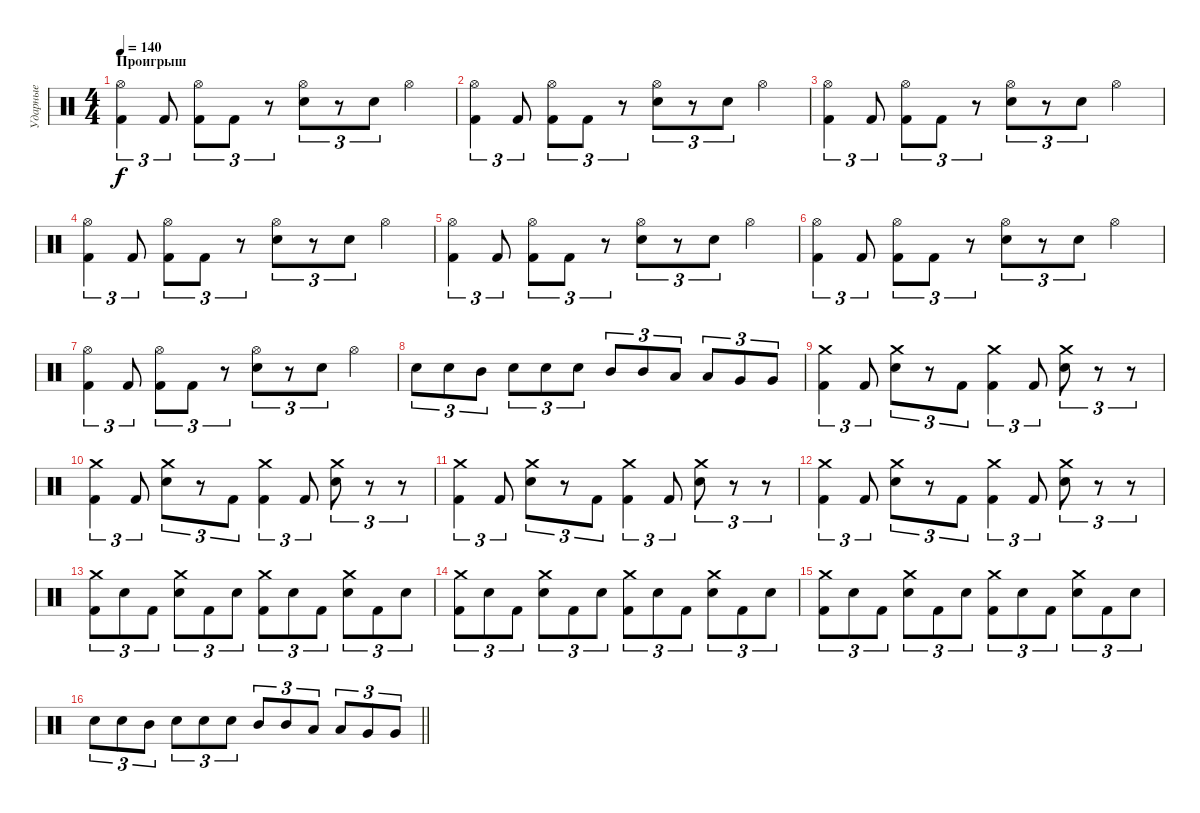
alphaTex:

\track ("Ударные" "Ударные") {instrument percussion}
\staff {score}
\articulation defaults
\ts (4 4)
\section ("" "Проигрыш")
\tempo 140
\clef neutral
\ks c
("Hi-Hat (open)" "Kick (hit) 2").4{tu (3 2) dy f} "Kick (hit) 2".8{tu (3 2)} ("Hi-Hat (open)" "Kick (hit) 2").8{tu (3 2)} "Kick (hit) 2".8{tu (3 2)} r.8{tu (3 2)} ("Hi-Hat (open)" "Electric Snare (hit)").8{tu (3 2)} r.8{tu (3 2)} "Electric Snare (hit)".8{tu (3 2)} "Hi-Hat (open)".4 |
("Hi-Hat (open)" "Kick (hit) 2").4{tu (3 2)} "Kick (hit) 2".8{tu (3 2)} ("Hi-Hat (open)" "Kick (hit) 2").8{tu (3 2)} "Kick (hit) 2".8{tu (3 2)} r.8{tu (3 2)} ("Hi-Hat (open)" "Electric Snare (hit)").8{tu (3 2)} r.8{tu (3 2)} "Electric Snare (hit)".8{tu (3 2)} "Hi-Hat (open)".4 |
("Hi-Hat (open)" "Kick (hit) 2").4{tu (3 2)} "Kick (hit) 2".8{tu (3 2)} ("Hi-Hat (open)" "Kick (hit) 2").8{tu (3 2)} "Kick (hit) 2".8{tu (3 2)} r.8{tu (3 2)} ("Hi-Hat (open)" "Electric Snare (hit)").8{tu (3 2)} r.8{tu (3 2)} "Electric Snare (hit)".8{tu (3 2)} "Hi-Hat (open)".4 |
("Hi-Hat (open)" "Kick (hit) 2").4{tu (3 2)} "Kick (hit) 2".8{tu (3 2)} ("Hi-Hat (open)" "Kick (hit) 2").8{tu (3 2)} "Kick (hit) 2".8{tu (3 2)} r.8{tu (3 2)} ("Hi-Hat (open)" "Electric Snare (hit)").8{tu (3 2)} r.8{tu (3 2)} "Electric Snare (hit)".8{tu (3 2)} "Hi-Hat (open)".4 |
("Hi-Hat (open)" "Kick (hit) 2").4{tu (3 2)} "Kick (hit) 2".8{tu (3 2)} ("Hi-Hat (open)" "Kick (hit) 2").8{tu (3 2)} "Kick (hit) 2".8{tu (3 2)} r.8{tu (3 2)} ("Hi-Hat (open)" "Electric Snare (hit)").8{tu (3 2)} r.8{tu (3 2)} "Electric Snare (hit)".8{tu (3 2)} "Hi-Hat (open)".4 |
("Hi-Hat (open)" "Kick (hit) 2").4{tu (3 2)} "Kick (hit) 2".8{tu (3 2)} ("Hi-Hat (open)" "Kick (hit) 2").8{tu (3 2)} "Kick (hit) 2".8{tu (3 2)} r.8{tu (3 2)} ("Hi-Hat (open)" "Electric Snare (hit)").8{tu (3 2)} r.8{tu (3 2)} "Electric Snare (hit)".8{tu (3 2)} "Hi-Hat (open)".4 |
("Hi-Hat (open)" "Kick (hit) 2").4{tu (3 2)} "Kick (hit) 2".8{tu (3 2)} ("Hi-Hat (open)" "Kick (hit) 2").8{tu (3 2)} "Kick (hit) 2".8{tu (3 2)} r.8{tu (3 2)} ("Hi-Hat (open)" "Electric Snare (hit)").8{tu (3 2)} r.8{tu (3 2)} "Electric Snare (hit)".8{tu (3 2)} "Hi-Hat (open)".4 |
"Electric Snare (hit)".8{tu (3 2)} "Electric Snare (hit)".8{tu (3 2)} "Mid Tom (hit)".8{tu (3 2)} "Electric Snare (hit)".8{tu (3 2)} "Electric Snare (hit)".8{tu (3 2)} "Electric Snare (hit)".8{tu (3 2)} "Mid Tom (hit)".8{tu (3 2)} "Mid Tom (hit)".8{tu (3 2)} "Low Tom (hit)".8{tu (3 2)} "Low Tom (hit)".8{tu (3 2)} "Very Low Tom (hit)".8{tu (3 2)} "Very Low Tom (hit)".8{tu (3 2)} |
("Crash medium (hit)" "Kick (hit) 2").4{tu (3 2)} "Kick (hit) 2".8{tu (3 2)} ("Crash medium (hit)" "Electric Snare (hit)").8{tu (3 2)} r.8{tu (3 2)} "Kick (hit) 2".8{tu (3 2)} ("Crash medium (hit)" "Kick (hit) 2").4{tu (3 2)} "Kick (hit) 2".8{tu (3 2)} ("Crash medium (hit)" "Electric Snare (hit)").8{tu (3 2)} r.8{tu (3 2)} r.8{tu (3 2)} |
("Crash medium (hit)" "Kick (hit) 2").4{tu (3 2)} "Kick (hit) 2".8{tu (3 2)} ("Crash medium (hit)" "Electric Snare (hit)").8{tu (3 2)} r.8{tu (3 2)} "Kick (hit) 2".8{tu (3 2)} ("Crash medium (hit)" "Kick (hit) 2").4{tu (3 2)} "Kick (hit) 2".8{tu (3 2)} ("Crash medium (hit)" "Electric Snare (hit)").8{tu (3 2)} r.8{tu (3 2)} r.8{tu (3 2)} |
("Crash medium (hit)" "Kick (hit) 2").4{tu (3 2)} "Kick (hit) 2".8{tu (3 2)} ("Crash medium (hit)" "Electric Snare (hit)").8{tu (3 2)} r.8{tu (3 2)} "Kick (hit) 2".8{tu (3 2)} ("Crash medium (hit)" "Kick (hit) 2").4{tu (3 2)} "Kick (hit) 2".8{tu (3 2)} ("Crash medium (hit)" "Electric Snare (hit)").8{tu (3 2)} r.8{tu (3 2)} r.8{tu (3 2)} |
("Crash medium (hit)" "Kick (hit) 2").4{tu (3 2)} "Kick (hit) 2".8{tu (3 2)} ("Crash medium (hit)" "Electric Snare (hit)").8{tu (3 2)} r.8{tu (3 2)} "Kick (hit) 2".8{tu (3 2)} ("Crash medium (hit)" "Kick (hit) 2").4{tu (3 2)} "Kick (hit) 2".8{tu (3 2)} ("Crash medium (hit)" "Electric Snare (hit)").8{tu (3 2)} r.8{tu (3 2)} r.8{tu (3 2)} |
("Crash medium (hit)" "Kick (hit) 2").8{tu (3 2)} "Electric Snare (hit)".8{tu (3 2)} "Kick (hit) 2".8{tu (3 2)} ("Crash medium (hit)" "Electric Snare (hit)").8{tu (3 2)} "Kick (hit) 2".8{tu (3 2)} "Electric Snare (hit)".8{tu (3 2)} ("Crash medium (hit)" "Kick (hit) 2").8{tu (3 2)} "Electric Snare (hit)".8{tu (3 2)} "Kick (hit) 2".8{tu (3 2)} ("Crash medium (hit)" "Electric Snare (hit)").8{tu (3 2)} "Kick (hit) 2".8{tu (3 2)} "Electric Snare (hit)".8{tu (3 2)} |
("Crash medium (hit)" "Kick (hit) 2").8{tu (3 2)} "Electric Snare (hit)".8{tu (3 2)} "Kick (hit) 2".8{tu (3 2)} ("Crash medium (hit)" "Electric Snare (hit)").8{tu (3 2)} "Kick (hit) 2".8{tu (3 2)} "Electric Snare (hit)".8{tu (3 2)} ("Crash medium (hit)" "Kick (hit) 2").8{tu (3 2)} "Electric Snare (hit)".8{tu (3 2)} "Kick (hit) 2".8{tu (3 2)} ("Crash medium (hit)" "Electric Snare (hit)").8{tu (3 2)} "Kick (hit) 2".8{tu (3 2)} "Electric Snare (hit)".8{tu (3 2)} |
("Crash medium (hit)" "Kick (hit) 2").8{tu (3 2)} "Electric Snare (hit)".8{tu (3 2)} "Kick (hit) 2".8{tu (3 2)} ("Crash medium (hit)" "Electric Snare (hit)").8{tu (3 2)} "Kick (hit) 2".8{tu (3 2)} "Electric Snare (hit)".8{tu (3 2)} ("Crash medium (hit)" "Kick (hit) 2").8{tu (3 2)} "Electric Snare (hit)".8{tu (3 2)} "Kick (hit) 2".8{tu (3 2)} ("Crash medium (hit)" "Electric Snare (hit)").8{tu (3 2)} "Kick (hit) 2".8{tu (3 2)} "Electric Snare (hit)".8{tu (3 2)} |
\barLineRight lightlight "Electric Snare (hit)".8{tu (3 2)} "Electric Snare (hit)".8{tu (3 2)} "Mid Tom (hit)".8{tu (3 2)} "Electric Snare (hit)".8{tu (3 2)} "Electric Snare (hit)".8{tu (3 2)} "Electric Snare (hit)".8{tu (3 2)} "Mid Tom (hit)".8{tu (3 2)} "Mid Tom (hit)".8{tu (3 2)} "Low Tom (hit)".8{tu (3 2)} "Low Tom (hit)".8{tu (3 2)} "Very Low Tom (hit)".8{tu (3 2)} "Very Low Tom (hit)".8{tu (3 2)}
